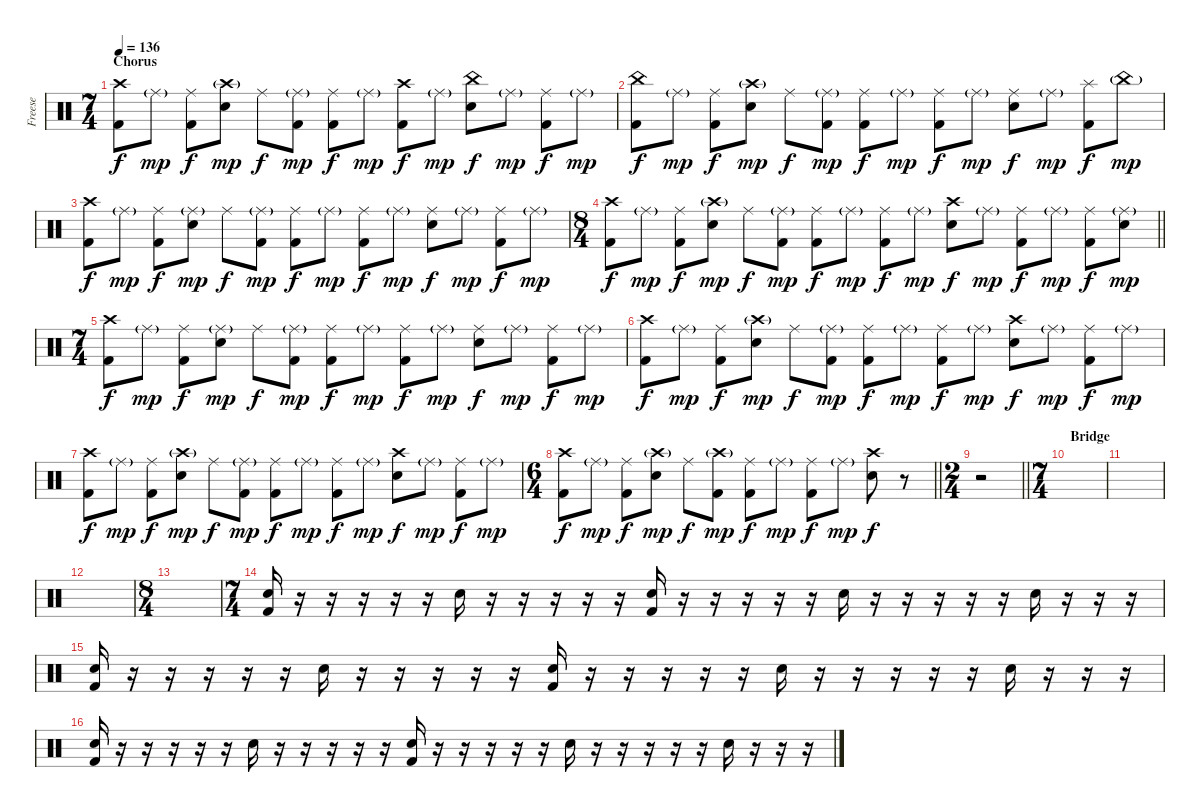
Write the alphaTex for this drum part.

\track ("Freese" "Freese") {instrument percussion}
\staff {score}
\articulation defaults
\ts (7 4)
\section ("" "Chorus")
\tempo 136
\clef neutral
\ks c
("Crash high (hit)" "Kick (hit) 2").8{dy f} "Ride (middle)"{g}.8{dy mp} ("Ride (middle)" "Kick (hit) 2").8{dy f} ("Crash high (hit)"{g} "Snare (hit) 2").8{dy mp} "Ride (middle)".8{dy f} ("Ride (middle)"{g} "Kick (hit) 2").8{dy mp} ("Ride (middle)" "Kick (hit) 2").8{dy f} "Ride (middle)"{g}.8{dy mp} ("Crash high (hit)" "Kick (hit) 2").8{dy f} "Ride (middle)"{g}.8{dy mp} ("China (hit)" "Snare (hit) 2").8{dy f} "Ride (middle)"{g}.8{dy mp} ("Ride (middle)" "Kick (hit) 2").8{dy f} "Ride (middle)"{g}.8{dy mp} |
("China (hit)" "Kick (hit) 2").8{dy f} "Ride (middle)"{g}.8{dy mp} ("Ride (middle)" "Kick (hit) 2").8{dy f} ("Crash high (hit)"{g} "Snare (hit) 2").8{dy mp} "Ride (middle)".8{dy f} ("Ride (middle)"{g} "Kick (hit) 2").8{dy mp} ("Ride (middle)" "Kick (hit) 2").8{dy f} "Ride (middle)"{g}.8{dy mp} ("Ride (middle)" "Kick (hit) 2").8{dy f} "Ride (middle)"{g}.8{dy mp} ("Ride (middle)" "Snare (hit) 2").8{dy f} "Ride (middle)"{g}.8{dy mp} ("Splash (hit)" "Kick (hit) 2").8{dy f} "China (hit)"{g}.8{dy mp} |
("Crash high (hit)" "Kick (hit) 2").8{dy f} "Ride (middle)"{g}.8{dy mp} ("Ride (middle)" "Kick (hit) 2").8{dy f} ("Ride (middle)"{g} "Snare (hit) 2").8{dy mp} "Ride (middle)".8{dy f} ("Ride (middle)"{g} "Kick (hit) 2").8{dy mp} ("Ride (middle)" "Kick (hit) 2").8{dy f} "Ride (middle)"{g}.8{dy mp} ("Ride (middle)" "Kick (hit) 2").8{dy f} "Ride (middle)"{g}.8{dy mp} ("Ride (middle)" "Snare (hit) 2").8{dy f} "Ride (middle)"{g}.8{dy mp} ("Ride (middle)" "Kick (hit) 2").8{dy f} "Ride (middle)"{g}.8{dy mp} |
\ts (8 4)
\barLineRight lightlight
("Crash high (hit)" "Kick (hit) 2").8{dy f} "Ride (middle)"{g}.8{dy mp} ("Ride (middle)" "Kick (hit) 2").8{dy f} ("Crash high (hit)"{g} "Snare (hit) 2").8{dy mp} "Ride (middle)".8{dy f} ("Ride (middle)"{g} "Kick (hit) 2").8{dy mp} ("Ride (middle)" "Kick (hit) 2").8{dy f} "Ride (middle)"{g}.8{dy mp} ("Ride (middle)" "Kick (hit) 2").8{dy f} "Ride (middle)"{g}.8{dy mp} ("Crash high (hit)" "Snare (hit) 2").8{dy f} "Ride (middle)"{g}.8{dy mp} ("Ride (middle)" "Kick (hit) 2").8{dy f} "Ride (middle)"{g}.8{dy mp} ("Ride (middle)" "Kick (hit) 2").8{dy f} ("Ride (middle)"{g} "Snare (hit) 2").8{dy mp} |
\ts (7 4)
("Crash high (hit)" "Kick (hit) 2").8{dy f} "Ride (middle)"{g}.8{dy mp} ("Ride (middle)" "Kick (hit) 2").8{dy f} ("Ride (middle)"{g} "Snare (hit) 2").8{dy mp} "Ride (middle)".8{dy f} ("Ride (middle)"{g} "Kick (hit) 2").8{dy mp} ("Ride (middle)" "Kick (hit) 2").8{dy f} "Ride (middle)"{g}.8{dy mp} ("Ride (middle)" "Kick (hit) 2").8{dy f} "Ride (middle)"{g}.8{dy mp} ("Ride (middle)" "Snare (hit) 2").8{dy f} "Ride (middle)"{g}.8{dy mp} ("Ride (middle)" "Kick (hit) 2").8{dy f} "Ride (middle)"{g}.8{dy mp} |
("Crash high (hit)" "Kick (hit) 2").8{dy f} "Ride (middle)"{g}.8{dy mp} ("Ride (middle)" "Kick (hit) 2").8{dy f} ("Crash high (hit)"{g} "Snare (hit) 2").8{dy mp} "Ride (middle)".8{dy f} ("Ride (middle)"{g} "Kick (hit) 2").8{dy mp} ("Ride (middle)" "Kick (hit) 2").8{dy f} "Ride (middle)"{g}.8{dy mp} ("Ride (middle)" "Kick (hit) 2").8{dy f} "Ride (middle)"{g}.8{dy mp} ("Crash high (hit)" "Snare (hit) 2").8{dy f} "Ride (middle)"{g}.8{dy mp} ("Ride (middle)" "Kick (hit) 2").8{dy f} "Ride (middle)"{g}.8{dy mp} |
("Crash high (hit)" "Kick (hit) 2").8{dy f} "Ride (middle)"{g}.8{dy mp} ("Ride (middle)" "Kick (hit) 2").8{dy f} ("Crash high (hit)"{g} "Snare (hit) 2").8{dy mp} "Ride (middle)".8{dy f} ("Ride (middle)"{g} "Kick (hit) 2").8{dy mp} ("Ride (middle)" "Kick (hit) 2").8{dy f} "Ride (middle)"{g}.8{dy mp} ("Ride (middle)" "Kick (hit) 2").8{dy f} "Ride (middle)"{g}.8{dy mp} ("Crash high (hit)" "Snare (hit) 2").8{dy f} "Ride (middle)"{g}.8{dy mp} ("Ride (middle)" "Kick (hit) 2").8{dy f} "Ride (middle)"{g}.8{dy mp} |
\ts (6 4)
\barLineRight lightlight
("Crash high (hit)" "Kick (hit) 2").8{dy f} "Ride (middle)"{g}.8{dy mp} ("Ride (middle)" "Kick (hit) 2").8{dy f} ("Crash high (hit)"{g} "Snare (hit) 2").8{dy mp} "Ride (middle)".8{dy f} ("Crash high (hit)"{g} "Kick (hit) 2").8{dy mp} ("Ride (middle)" "Kick (hit) 2").8{dy f} "Ride (middle)"{g}.8{dy mp} ("Ride (middle)" "Kick (hit) 2").8{dy f} "Ride (middle)"{g}.8{dy mp} ("Crash high (hit)" "Snare (hit) 2").8{dy f} r.8 |
\ts (2 4)
\barLineRight lightlight
r.2 |
\ts (7 4)
\section ("" "Bridge")
|
|
|
\ts (8 4)
|
\ts (7 4)
("Snare (hit) 2" "Kick (hit) 2").16 r.16 r.16 r.16 r.16 r.16 "Snare (hit) 2".16 r.16 r.16 r.16 r.16 r.16 ("Snare (hit) 2" "Kick (hit) 2").16 r.16 r.16 r.16 r.16 r.16 "Snare (hit) 2".16 r.16 r.16 r.16 r.16 r.16 "Snare (hit) 2".16 r.16 r.16 r.16 |
("Snare (hit) 2" "Kick (hit) 2").16 r.16 r.16 r.16 r.16 r.16 "Snare (hit) 2".16 r.16 r.16 r.16 r.16 r.16 ("Snare (hit) 2" "Kick (hit) 2").16 r.16 r.16 r.16 r.16 r.16 "Snare (hit) 2".16 r.16 r.16 r.16 r.16 r.16 "Snare (hit) 2".16 r.16 r.16 r.16 |
("Snare (hit) 2" "Kick (hit) 2").16 r.16 r.16 r.16 r.16 r.16 "Snare (hit) 2".16 r.16 r.16 r.16 r.16 r.16 ("Snare (hit) 2" "Kick (hit) 2").16 r.16 r.16 r.16 r.16 r.16 "Snare (hit) 2".16 r.16 r.16 r.16 r.16 r.16 "Snare (hit) 2".16 r.16 r.16 r.16
